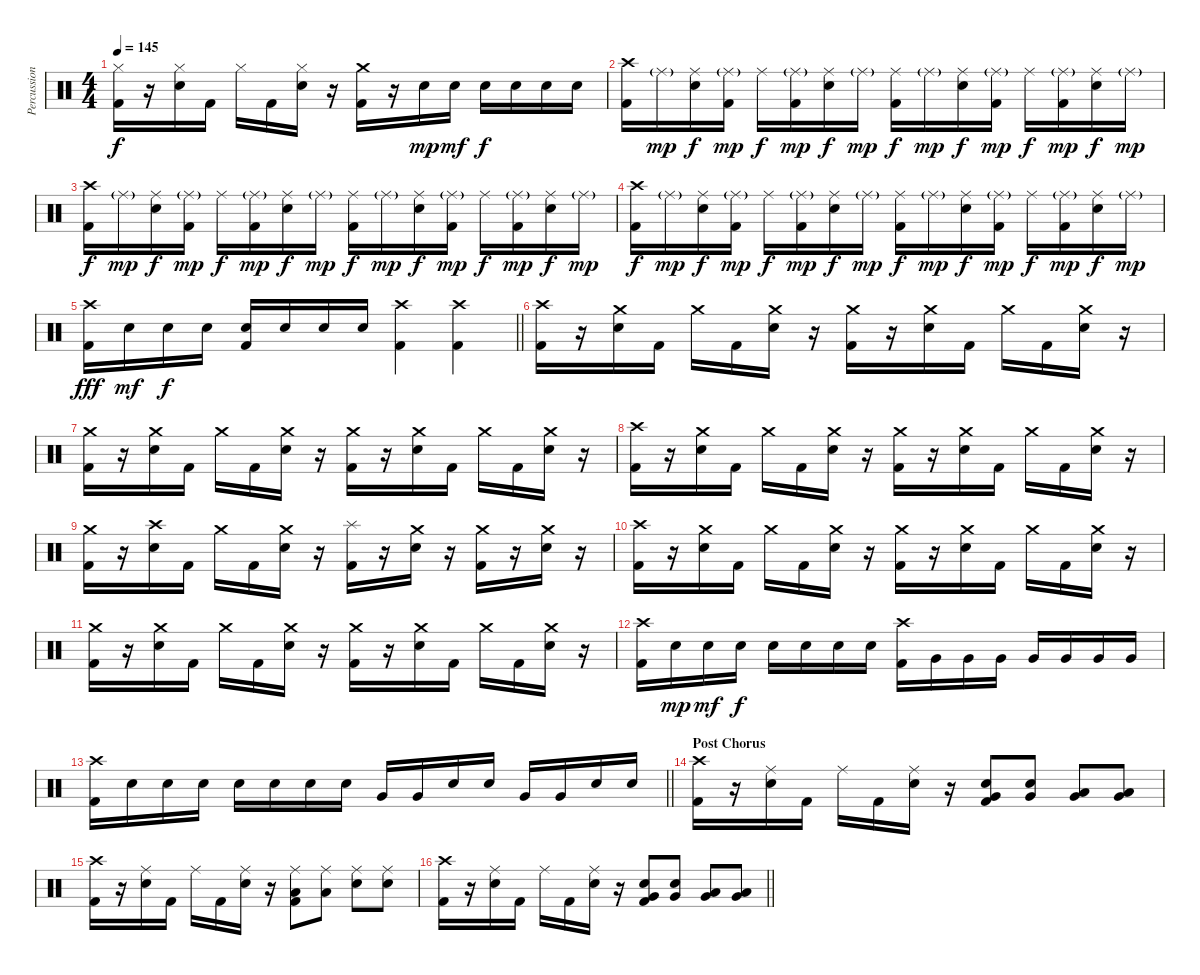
\track ("Percussion" "Percussion") {instrument percussion}
\staff {score}
\articulation defaults
\ts (4 4)
\tempo 145
\clef neutral
\ks c
("Hi-Hat (closed)" "Kick (hit) 2").16{dy f} r.16 ("Hi-Hat (closed)" "Electric Snare (hit)").16 "Kick (hit) 2".16 "Hi-Hat (closed)".16 "Kick (hit) 2".16 ("Hi-Hat (closed)" "Electric Snare (hit)").16 r.16 ("Crash medium (hit)" "Kick (hit) 2").16 r.16 "Electric Snare (hit)".16{dy mp} "Electric Snare (hit)".16{dy mf} "Electric Snare (hit)".16{dy f} "Electric Snare (hit)".16 "Electric Snare (hit)".16 "Electric Snare (hit)".16 |
("Crash high (hit)" "Kick (hit) 2").16 "Ride (middle)"{g}.16{dy mp} ("Ride (middle)" "Electric Snare (hit)").16{dy f} ("Ride (middle)"{g} "Kick (hit) 2").16{dy mp} "Ride (middle)".16{dy f} ("Ride (middle)"{g} "Kick (hit) 2").16{dy mp} ("Ride (middle)" "Electric Snare (hit)").16{dy f} "Ride (middle)"{g}.16{dy mp} ("Ride (middle)" "Kick (hit) 2").16{dy f} "Ride (middle)"{g}.16{dy mp} ("Ride (middle)" "Electric Snare (hit)").16{dy f} ("Ride (middle)"{g} "Kick (hit) 2").16{dy mp} "Ride (middle)".16{dy f} ("Ride (middle)"{g} "Kick (hit) 2").16{dy mp} ("Ride (middle)" "Electric Snare (hit)").16{dy f} "Ride (middle)"{g}.16{dy mp} |
("Crash high (hit)" "Kick (hit) 2").16{dy f} "Ride (middle)"{g}.16{dy mp} ("Ride (middle)" "Electric Snare (hit)").16{dy f} ("Ride (middle)"{g} "Kick (hit) 2").16{dy mp} "Ride (middle)".16{dy f} ("Ride (middle)"{g} "Kick (hit) 2").16{dy mp} ("Ride (middle)" "Electric Snare (hit)").16{dy f} "Ride (middle)"{g}.16{dy mp} ("Ride (middle)" "Kick (hit) 2").16{dy f} "Ride (middle)"{g}.16{dy mp} ("Ride (middle)" "Electric Snare (hit)").16{dy f} ("Ride (middle)"{g} "Kick (hit) 2").16{dy mp} "Ride (middle)".16{dy f} ("Ride (middle)"{g} "Kick (hit) 2").16{dy mp} ("Ride (middle)" "Electric Snare (hit)").16{dy f} "Ride (middle)"{g}.16{dy mp} |
("Crash high (hit)" "Kick (hit) 2").16{dy f} "Ride (middle)"{g}.16{dy mp} ("Ride (middle)" "Electric Snare (hit)").16{dy f} ("Ride (middle)"{g} "Kick (hit) 2").16{dy mp} "Ride (middle)".16{dy f} ("Ride (middle)"{g} "Kick (hit) 2").16{dy mp} ("Ride (middle)" "Electric Snare (hit)").16{dy f} "Ride (middle)"{g}.16{dy mp} ("Ride (middle)" "Kick (hit) 2").16{dy f} "Ride (middle)"{g}.16{dy mp} ("Ride (middle)" "Electric Snare (hit)").16{dy f} ("Ride (middle)"{g} "Kick (hit) 2").16{dy mp} "Ride (middle)".16{dy f} ("Ride (middle)"{g} "Kick (hit) 2").16{dy mp} ("Ride (middle)" "Electric Snare (hit)").16{dy f} "Ride (middle)"{g}.16{dy mp} |
\barLineRight lightlight
("Crash high (hit)" "Kick (hit) 2").16{dy fff} "Electric Snare (hit)".16{dy mf} "Electric Snare (hit)".16{dy f} "Electric Snare (hit)".16 ("Electric Snare (hit)" "Kick (hit) 2").16 "Electric Snare (hit)".16 "Electric Snare (hit)".16 "Electric Snare (hit)".16 ("Crash high (hit)" "Kick (hit) 2").4 ("Crash high (hit)" "Kick (hit) 2").4 |
("Crash high (hit)" "Kick (hit) 2").16 r.16 ("Crash medium (hit)" "Electric Snare (hit)").16 "Kick (hit) 2".16 "Crash medium (hit)".16 "Kick (hit) 2".16 ("Crash medium (hit)" "Electric Snare (hit)").16 r.16 ("Crash medium (hit)" "Kick (hit) 2").16 r.16 ("Crash medium (hit)" "Electric Snare (hit)").16 "Kick (hit) 2".16 "Crash medium (hit)".16 "Kick (hit) 2".16 ("Crash medium (hit)" "Electric Snare (hit)").16 r.16 |
("Crash medium (hit)" "Kick (hit) 2").16 r.16 ("Crash medium (hit)" "Electric Snare (hit)").16 "Kick (hit) 2".16 "Crash medium (hit)".16 "Kick (hit) 2".16 ("Crash medium (hit)" "Electric Snare (hit)").16 r.16 ("Crash medium (hit)" "Kick (hit) 2").16 r.16 ("Crash medium (hit)" "Electric Snare (hit)").16 "Kick (hit) 2".16 "Crash medium (hit)".16 "Kick (hit) 2".16 ("Crash medium (hit)" "Electric Snare (hit)").16 r.16 |
("Crash high (hit)" "Kick (hit) 2").16 r.16 ("Crash medium (hit)" "Electric Snare (hit)").16 "Kick (hit) 2".16 "Crash medium (hit)".16 "Kick (hit) 2".16 ("Crash medium (hit)" "Electric Snare (hit)").16 r.16 ("Crash medium (hit)" "Kick (hit) 2").16 r.16 ("Crash medium (hit)" "Electric Snare (hit)").16 "Kick (hit) 2".16 "Crash medium (hit)".16 "Kick (hit) 2".16 ("Crash medium (hit)" "Electric Snare (hit)").16 r.16 |
("Crash medium (hit)" "Kick (hit) 2").16 r.16 ("Crash high (hit)" "Electric Snare (hit)").16 "Kick (hit) 2".16 "Crash medium (hit)".16 "Kick (hit) 2".16 ("Crash medium (hit)" "Electric Snare (hit)").16 r.16 ("Splash (hit)" "Kick (hit) 2").16 r.16 ("Crash medium (hit)" "Electric Snare (hit)").16 r.16 ("Crash medium (hit)" "Kick (hit) 2").16 r.16 ("Crash medium (hit)" "Electric Snare (hit)").16 r.16 |
("Crash high (hit)" "Kick (hit) 2").16 r.16 ("Crash medium (hit)" "Electric Snare (hit)").16 "Kick (hit) 2".16 "Crash medium (hit)".16 "Kick (hit) 2".16 ("Crash medium (hit)" "Electric Snare (hit)").16 r.16 ("Crash medium (hit)" "Kick (hit) 2").16 r.16 ("Crash medium (hit)" "Electric Snare (hit)").16 "Kick (hit) 2".16 "Crash medium (hit)".16 "Kick (hit) 2".16 ("Crash medium (hit)" "Electric Snare (hit)").16 r.16 |
("Crash medium (hit)" "Kick (hit) 2").16 r.16 ("Crash medium (hit)" "Electric Snare (hit)").16 "Kick (hit) 2".16 "Crash medium (hit)".16 "Kick (hit) 2".16 ("Crash medium (hit)" "Electric Snare (hit)").16 r.16 ("Crash medium (hit)" "Kick (hit) 2").16 r.16 ("Crash medium (hit)" "Electric Snare (hit)").16 "Kick (hit) 2".16 "Crash medium (hit)".16 "Kick (hit) 2".16 ("Crash medium (hit)" "Electric Snare (hit)").16 r.16 |
("Crash high (hit)" "Kick (hit) 2").16 "Electric Snare (hit)".16{dy mp} "Electric Snare (hit)".16{dy mf} "Electric Snare (hit)".16{dy f} "Electric Snare (hit)".16 "Electric Snare (hit)".16 "Electric Snare (hit)".16 "Electric Snare (hit)".16 ("Crash high (hit)" "Kick (hit) 2").16 "Very Low Tom (hit)".16 "Very Low Tom (hit)".16 "Very Low Tom (hit)".16 "Very Low Tom (hit)".16 "Very Low Tom (hit)".16 "Very Low Tom (hit)".16 "Very Low Tom (hit)".16 |
\barLineRight lightlight
("Crash high (hit)" "Kick (hit) 2").16 "Electric Snare (hit)".16 "Electric Snare (hit)".16 "Electric Snare (hit)".16 "Electric Snare (hit)".16 "Electric Snare (hit)".16 "Electric Snare (hit)".16 "Electric Snare (hit)".16 "Very Low Tom (hit)".16 "Very Low Tom (hit)".16 "Electric Snare (hit)".16 "Electric Snare (hit)".16 "Very Low Tom (hit)".16 "Very Low Tom (hit)".16 "Electric Snare (hit)".16 "Electric Snare (hit)".16 |
\section ("" "Post Chorus")
("Crash high (hit)" "Kick (hit) 2").16 r.16 ("Ride (middle)" "Electric Snare (hit)").16 "Kick (hit) 2".16 "Ride (middle)".16 "Kick (hit) 2".16 ("Ride (middle)" "Electric Snare (hit)").16 r.16 ("Very Low Tom (hit)" "Electric Snare (hit)" "Kick (hit) 2").8 ("Very Low Tom (hit)" "Electric Snare (hit)").8 ("Very Low Tom (hit)" "Low Floor Tom (hit)").8 ("Very Low Tom (hit)" "Low Floor Tom (hit)").8 |
("Crash high (hit)" "Kick (hit) 2").16 r.16 ("Ride (middle)" "Electric Snare (hit)").16 "Kick (hit) 2".16 "Ride (middle)".16 "Kick (hit) 2".16 ("Ride (middle)" "Electric Snare (hit)").16 r.16 ("Ride (middle)" "Low Floor Tom (hit)" "Kick (hit) 2").8 ("Ride (middle)" "Low Floor Tom (hit)").8 ("Ride (middle)" "Electric Snare (hit)").8 ("Ride (middle)" "Electric Snare (hit)").8 |
\barLineRight lightlight
("Crash high (hit)" "Kick (hit) 2").16 r.16 ("Ride (middle)" "Electric Snare (hit)").16 "Kick (hit) 2".16 "Ride (middle)".16 "Kick (hit) 2".16 ("Ride (middle)" "Electric Snare (hit)").16 r.16 ("Very Low Tom (hit)" "Electric Snare (hit)" "Kick (hit) 2").8 ("Very Low Tom (hit)" "Electric Snare (hit)").8 ("Very Low Tom (hit)" "Low Floor Tom (hit)").8 ("Very Low Tom (hit)" "Low Floor Tom (hit)").8
